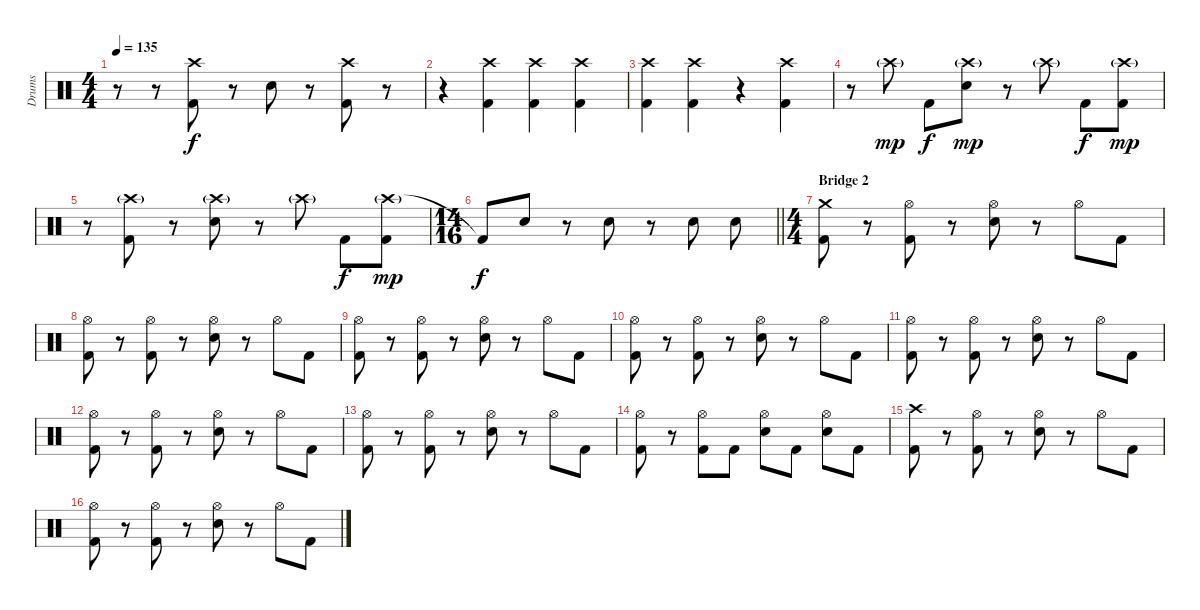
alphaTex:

\track ("Drums" "Drums") {instrument percussion}
\staff {score}
\articulation defaults
\ts (4 4)
\tempo 135
\clef neutral
\ks c
r.8{dy f} r.8 ("Crash high (hit)" "Kick (hit) 2").8 r.8 "Electric Snare (hit)".8 r.8 ("Crash high (hit)" "Kick (hit) 2").8 r.8 |
r.4 ("Crash high (hit)" "Kick (hit) 2").4 ("Crash high (hit)" "Kick (hit) 2").4 ("Crash high (hit)" "Kick (hit) 2").4 |
("Crash high (hit)" "Kick (hit) 2").4 ("Crash high (hit)" "Kick (hit) 2").4 r.4 ("Kick (hit) 2" "Crash high (hit)").4 |
r.8 "Crash high (hit)"{g}.8{dy mp} "Kick (hit) 2".8{dy f} ("Crash high (hit)"{g} "Electric Snare (hit)").8{dy mp} r.8 "Crash high (hit)"{g}.8 "Kick (hit) 2".8{dy f} ("Crash high (hit)"{g} "Kick (hit) 2").8{dy mp} |
r.8 ("Crash high (hit)"{g} "Kick (hit) 2").8 r.8 ("Crash high (hit)"{g} "Electric Snare (hit)").8 r.8 "Crash high (hit)"{g}.8 "Kick (hit) 2".8{dy f} ("Crash high (hit)"{g} "Kick (hit) 2").8{dy mp} |
\ts (14 16)
\barLineRight lightlight "Kick (hit) 2"{t}.8{dy f} "Electric Snare (hit)".8
r.8 "Electric Snare (hit)".8 r.8 "Electric Snare (hit)".8 "Electric Snare (hit)".8 |
\ts (4 4)
\section ("" "Bridge 2")
("Crash medium (hit)" "Kick (hit) 2").8 r.8 ("Hi-Hat (open)" "Kick (hit) 2").8 r.8 ("Hi-Hat (open)" "Electric Snare (hit)").8 r.8 "Hi-Hat (open)".8 "Kick (hit) 2".8 |
("Hi-Hat (open)" "Kick (hit) 2").8 r.8 ("Hi-Hat (open)" "Kick (hit) 2").8 r.8 ("Hi-Hat (open)" "Electric Snare (hit)").8 r.8 "Hi-Hat (open)".8 "Kick (hit) 2".8 |
("Hi-Hat (open)" "Kick (hit) 2").8 r.8 ("Hi-Hat (open)" "Kick (hit) 2").8 r.8 ("Hi-Hat (open)" "Electric Snare (hit)").8 r.8 "Hi-Hat (open)".8 "Kick (hit) 2".8 |
("Hi-Hat (open)" "Kick (hit) 2").8 r.8 ("Hi-Hat (open)" "Kick (hit) 2").8 r.8 ("Hi-Hat (open)" "Electric Snare (hit)").8 r.8 "Hi-Hat (open)".8 "Kick (hit) 2".8 |
("Hi-Hat (open)" "Kick (hit) 2").8 r.8 ("Hi-Hat (open)" "Kick (hit) 2").8 r.8 ("Hi-Hat (open)" "Electric Snare (hit)").8 r.8 "Hi-Hat (open)".8 "Kick (hit) 2".8 |
("Hi-Hat (open)" "Kick (hit) 2").8 r.8 ("Hi-Hat (open)" "Kick (hit) 2").8 r.8 ("Hi-Hat (open)" "Electric Snare (hit)").8 r.8 "Hi-Hat (open)".8 "Kick (hit) 2".8 |
("Hi-Hat (open)" "Kick (hit) 2").8 r.8 ("Hi-Hat (open)" "Kick (hit) 2").8 r.8 ("Hi-Hat (open)" "Electric Snare (hit)").8 r.8 "Hi-Hat (open)".8 "Kick (hit) 2".8 |
("Hi-Hat (open)" "Kick (hit) 2").8 r.8 ("Hi-Hat (open)" "Kick (hit) 2").8 "Kick (hit) 2".8 ("Hi-Hat (open)" "Electric Snare (hit)").8 "Kick (hit) 2".8 ("Hi-Hat (open)" "Electric Snare (hit)").8 "Kick (hit) 2".8 |
("Crash high (hit)" "Kick (hit) 2").8 r.8 ("Hi-Hat (open)" "Kick (hit) 2").8 r.8 ("Hi-Hat (open)" "Electric Snare (hit)").8 r.8 "Hi-Hat (open)".8 "Kick (hit) 2".8 |
("Hi-Hat (open)" "Kick (hit) 2").8 r.8 ("Hi-Hat (open)" "Kick (hit) 2").8 r.8 ("Hi-Hat (open)" "Electric Snare (hit)").8 r.8 "Hi-Hat (open)".8 "Kick (hit) 2".8
